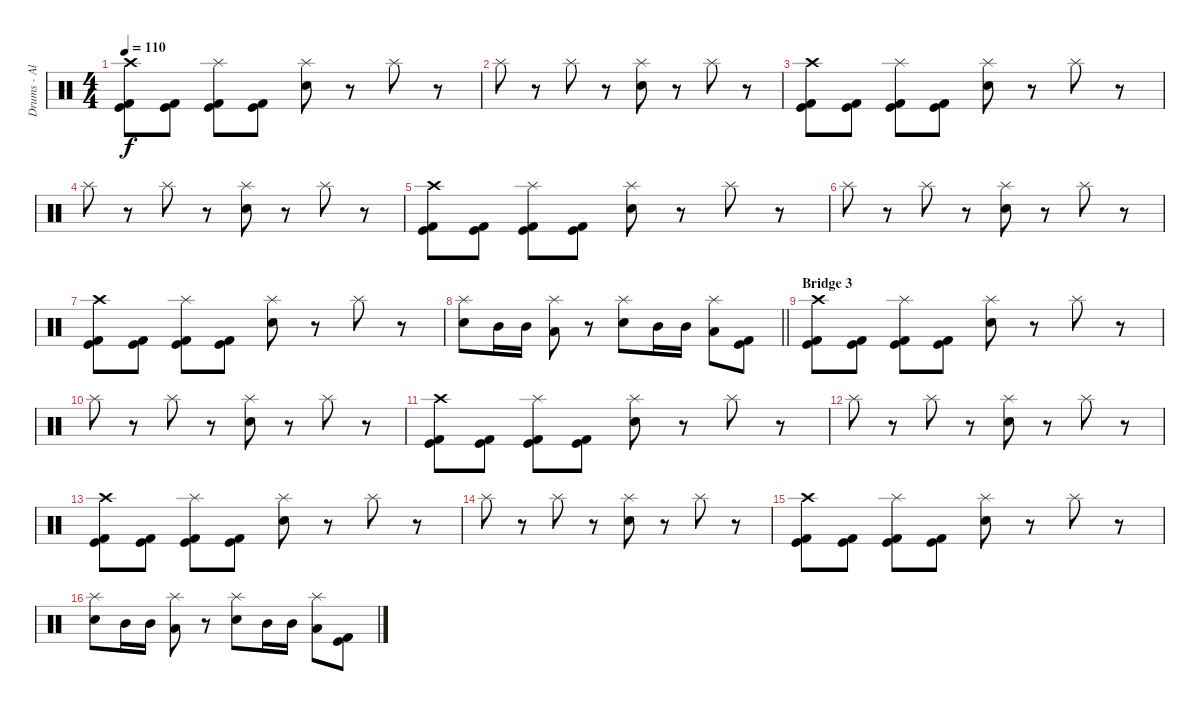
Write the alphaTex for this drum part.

\track ("Drums - Alex Shellnut" "Drums - Al") {instrument percussion}
\staff {score}
\articulation defaults
\ts (4 4)
\tempo 110
\clef neutral
\ks c
("Crash high (hit)" "Kick (hit)" "Kick (hit) 2").8{dy f} ("Kick (hit)" "Kick (hit) 2").8 ("Splash (hit)" "Kick (hit)" "Kick (hit) 2").8 ("Kick (hit)" "Kick (hit) 2").8 ("Splash (hit)" "Electric Snare (hit)").8 r.8 "Splash (hit)".8 r.8 |
"Splash (hit)".8 r.8 "Splash (hit)".8 r.8 ("Splash (hit)" "Electric Snare (hit)").8 r.8 "Splash (hit)".8 r.8 |
("Crash high (hit)" "Kick (hit)" "Kick (hit) 2").8 ("Kick (hit)" "Kick (hit) 2").8 ("Splash (hit)" "Kick (hit)" "Kick (hit) 2").8 ("Kick (hit)" "Kick (hit) 2").8 ("Splash (hit)" "Electric Snare (hit)").8 r.8 "Splash (hit)".8 r.8 |
"Splash (hit)".8 r.8 "Splash (hit)".8 r.8 ("Splash (hit)" "Electric Snare (hit)").8 r.8 "Splash (hit)".8 r.8 |
("Crash high (hit)" "Kick (hit)" "Kick (hit) 2").8 ("Kick (hit)" "Kick (hit) 2").8 ("Splash (hit)" "Kick (hit)" "Kick (hit) 2").8 ("Kick (hit)" "Kick (hit) 2").8 ("Splash (hit)" "Electric Snare (hit)").8 r.8 "Splash (hit)".8 r.8 |
"Splash (hit)".8 r.8 "Splash (hit)".8 r.8 ("Splash (hit)" "Electric Snare (hit)").8 r.8 "Splash (hit)".8 r.8 |
("Crash high (hit)" "Kick (hit)" "Kick (hit) 2").8 ("Kick (hit)" "Kick (hit) 2").8 ("Splash (hit)" "Kick (hit)" "Kick (hit) 2").8 ("Kick (hit)" "Kick (hit) 2").8 ("Splash (hit)" "Electric Snare (hit)").8 r.8 "Splash (hit)".8 r.8 |
\barLineRight lightlight
("Splash (hit)" "Electric Snare (hit)").8 "Mid Tom (hit)".16 "Mid Tom (hit)".16 ("Splash (hit)" "Low Tom (hit)").8 r.8 ("Splash (hit)" "Electric Snare (hit)").8 "Mid Tom (hit)".16 "Mid Tom (hit)".16 ("Splash (hit)" "Low Tom (hit)").8 ("Kick (hit)" "Kick (hit) 2").8 |
\section ("" "Bridge 3")
("Crash high (hit)" "Kick (hit)" "Kick (hit) 2").8 ("Kick (hit)" "Kick (hit) 2").8 ("Splash (hit)" "Kick (hit)" "Kick (hit) 2").8 ("Kick (hit)" "Kick (hit) 2").8 ("Splash (hit)" "Electric Snare (hit)").8 r.8 "Splash (hit)".8 r.8 |
"Splash (hit)".8 r.8 "Splash (hit)".8 r.8 ("Splash (hit)" "Electric Snare (hit)").8 r.8 "Splash (hit)".8 r.8 |
("Crash high (hit)" "Kick (hit)" "Kick (hit) 2").8 ("Kick (hit)" "Kick (hit) 2").8 ("Splash (hit)" "Kick (hit)" "Kick (hit) 2").8 ("Kick (hit)" "Kick (hit) 2").8 ("Splash (hit)" "Electric Snare (hit)").8 r.8 "Splash (hit)".8 r.8 |
"Splash (hit)".8 r.8 "Splash (hit)".8 r.8 ("Splash (hit)" "Electric Snare (hit)").8 r.8 "Splash (hit)".8 r.8 |
("Crash high (hit)" "Kick (hit)" "Kick (hit) 2").8 ("Kick (hit)" "Kick (hit) 2").8 ("Splash (hit)" "Kick (hit)" "Kick (hit) 2").8 ("Kick (hit)" "Kick (hit) 2").8 ("Splash (hit)" "Electric Snare (hit)").8 r.8 "Splash (hit)".8 r.8 |
"Splash (hit)".8 r.8 "Splash (hit)".8 r.8 ("Splash (hit)" "Electric Snare (hit)").8 r.8 "Splash (hit)".8 r.8 |
("Crash high (hit)" "Kick (hit)" "Kick (hit) 2").8 ("Kick (hit)" "Kick (hit) 2").8 ("Splash (hit)" "Kick (hit)" "Kick (hit) 2").8 ("Kick (hit)" "Kick (hit) 2").8 ("Splash (hit)" "Electric Snare (hit)").8 r.8 "Splash (hit)".8 r.8 |
("Splash (hit)" "Electric Snare (hit)").8 "Mid Tom (hit)".16 "Mid Tom (hit)".16 ("Splash (hit)" "Low Tom (hit)").8 r.8 ("Splash (hit)" "Electric Snare (hit)").8 "Mid Tom (hit)".16 "Mid Tom (hit)".16 ("Splash (hit)" "Low Tom (hit)").8 ("Kick (hit)" "Kick (hit) 2").8
